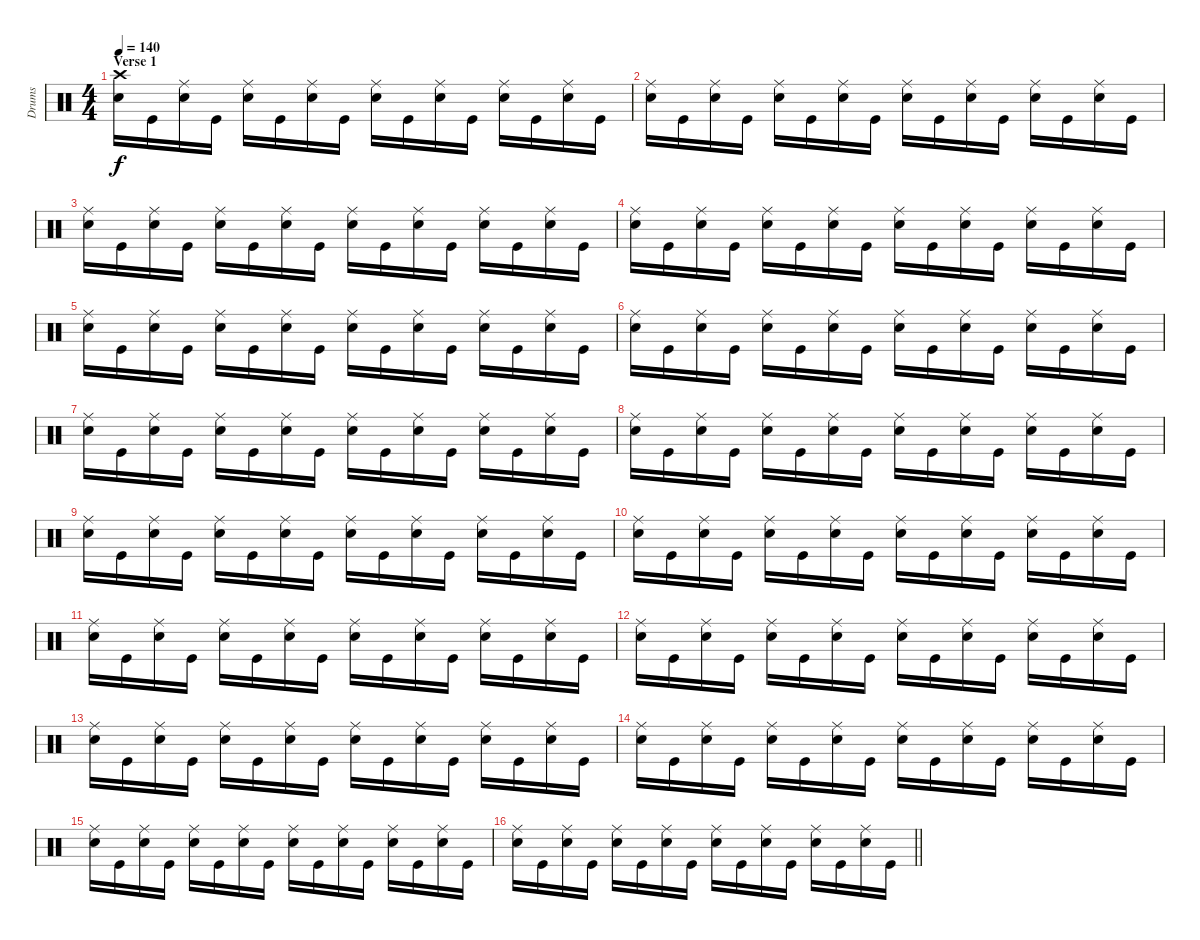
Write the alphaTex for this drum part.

\track ("Drums" "Drums") {instrument percussion}
\staff {score}
\articulation defaults
\ts (4 4)
\section ("" "Verse 1")
\tempo 140
\clef neutral
\ks c
("Crash high (hit)" "Snare (hit) 2").16{dy f} "Kick (hit)".16 ("Ride (middle)" "Snare (hit) 2").16 "Kick (hit)".16 ("Ride (middle)" "Snare (hit) 2").16 "Kick (hit)".16 ("Ride (middle)" "Snare (hit) 2").16 "Kick (hit)".16 ("Ride (middle)" "Snare (hit) 2").16 "Kick (hit)".16 ("Ride (middle)" "Snare (hit) 2").16 "Kick (hit)".16 ("Ride (middle)" "Snare (hit) 2").16 "Kick (hit)".16 ("Ride (middle)" "Snare (hit) 2").16 "Kick (hit)".16 |
("Ride (middle)" "Snare (hit) 2").16 "Kick (hit)".16 ("Ride (middle)" "Snare (hit) 2").16 "Kick (hit)".16 ("Ride (middle)" "Snare (hit) 2").16 "Kick (hit)".16 ("Ride (middle)" "Snare (hit) 2").16 "Kick (hit)".16 ("Ride (middle)" "Snare (hit) 2").16 "Kick (hit)".16 ("Ride (middle)" "Snare (hit) 2").16 "Kick (hit)".16 ("Ride (middle)" "Snare (hit) 2").16 "Kick (hit)".16 ("Ride (middle)" "Snare (hit) 2").16 "Kick (hit)".16 |
("Ride (middle)" "Snare (hit) 2").16 "Kick (hit)".16 ("Ride (middle)" "Snare (hit) 2").16 "Kick (hit)".16 ("Ride (middle)" "Snare (hit) 2").16 "Kick (hit)".16 ("Ride (middle)" "Snare (hit) 2").16 "Kick (hit)".16 ("Ride (middle)" "Snare (hit) 2").16 "Kick (hit)".16 ("Ride (middle)" "Snare (hit) 2").16 "Kick (hit)".16 ("Ride (middle)" "Snare (hit) 2").16 "Kick (hit)".16 ("Ride (middle)" "Snare (hit) 2").16 "Kick (hit)".16 |
("Ride (middle)" "Snare (hit) 2").16 "Kick (hit)".16 ("Ride (middle)" "Snare (hit) 2").16 "Kick (hit)".16 ("Ride (middle)" "Snare (hit) 2").16 "Kick (hit)".16 ("Ride (middle)" "Snare (hit) 2").16 "Kick (hit)".16 ("Ride (middle)" "Snare (hit) 2").16 "Kick (hit)".16 ("Ride (middle)" "Snare (hit) 2").16 "Kick (hit)".16 ("Ride (middle)" "Snare (hit) 2").16 "Kick (hit)".16 ("Ride (middle)" "Snare (hit) 2").16 "Kick (hit)".16 |
("Ride (middle)" "Snare (hit) 2").16 "Kick (hit)".16 ("Ride (middle)" "Snare (hit) 2").16 "Kick (hit)".16 ("Ride (middle)" "Snare (hit) 2").16 "Kick (hit)".16 ("Ride (middle)" "Snare (hit) 2").16 "Kick (hit)".16 ("Ride (middle)" "Snare (hit) 2").16 "Kick (hit)".16 ("Ride (middle)" "Snare (hit) 2").16 "Kick (hit)".16 ("Ride (middle)" "Snare (hit) 2").16 "Kick (hit)".16 ("Ride (middle)" "Snare (hit) 2").16 "Kick (hit)".16 |
("Ride (middle)" "Snare (hit) 2").16 "Kick (hit)".16 ("Ride (middle)" "Snare (hit) 2").16 "Kick (hit)".16 ("Ride (middle)" "Snare (hit) 2").16 "Kick (hit)".16 ("Ride (middle)" "Snare (hit) 2").16 "Kick (hit)".16 ("Ride (middle)" "Snare (hit) 2").16 "Kick (hit)".16 ("Ride (middle)" "Snare (hit) 2").16 "Kick (hit)".16 ("Ride (middle)" "Snare (hit) 2").16 "Kick (hit)".16 ("Ride (middle)" "Snare (hit) 2").16 "Kick (hit)".16 |
("Ride (middle)" "Snare (hit) 2").16 "Kick (hit)".16 ("Ride (middle)" "Snare (hit) 2").16 "Kick (hit)".16 ("Ride (middle)" "Snare (hit) 2").16 "Kick (hit)".16 ("Ride (middle)" "Snare (hit) 2").16 "Kick (hit)".16 ("Ride (middle)" "Snare (hit) 2").16 "Kick (hit)".16 ("Ride (middle)" "Snare (hit) 2").16 "Kick (hit)".16 ("Ride (middle)" "Snare (hit) 2").16 "Kick (hit)".16 ("Ride (middle)" "Snare (hit) 2").16 "Kick (hit)".16 |
("Ride (middle)" "Snare (hit) 2").16 "Kick (hit)".16 ("Ride (middle)" "Snare (hit) 2").16 "Kick (hit)".16 ("Ride (middle)" "Snare (hit) 2").16 "Kick (hit)".16 ("Ride (middle)" "Snare (hit) 2").16 "Kick (hit)".16 ("Ride (middle)" "Snare (hit) 2").16 "Kick (hit)".16 ("Ride (middle)" "Snare (hit) 2").16 "Kick (hit)".16 ("Ride (middle)" "Snare (hit) 2").16 "Kick (hit)".16 ("Ride (middle)" "Snare (hit) 2").16 "Kick (hit)".16 |
("Ride (middle)" "Snare (hit) 2").16 "Kick (hit)".16 ("Ride (middle)" "Snare (hit) 2").16 "Kick (hit)".16 ("Ride (middle)" "Snare (hit) 2").16 "Kick (hit)".16 ("Ride (middle)" "Snare (hit) 2").16 "Kick (hit)".16 ("Ride (middle)" "Snare (hit) 2").16 "Kick (hit)".16 ("Ride (middle)" "Snare (hit) 2").16 "Kick (hit)".16 ("Ride (middle)" "Snare (hit) 2").16 "Kick (hit)".16 ("Ride (middle)" "Snare (hit) 2").16 "Kick (hit)".16 |
("Ride (middle)" "Snare (hit) 2").16 "Kick (hit)".16 ("Ride (middle)" "Snare (hit) 2").16 "Kick (hit)".16 ("Ride (middle)" "Snare (hit) 2").16 "Kick (hit)".16 ("Ride (middle)" "Snare (hit) 2").16 "Kick (hit)".16 ("Ride (middle)" "Snare (hit) 2").16 "Kick (hit)".16 ("Ride (middle)" "Snare (hit) 2").16 "Kick (hit)".16 ("Ride (middle)" "Snare (hit) 2").16 "Kick (hit)".16 ("Ride (middle)" "Snare (hit) 2").16 "Kick (hit)".16 |
("Ride (middle)" "Snare (hit) 2").16 "Kick (hit)".16 ("Ride (middle)" "Snare (hit) 2").16 "Kick (hit)".16 ("Ride (middle)" "Snare (hit) 2").16 "Kick (hit)".16 ("Ride (middle)" "Snare (hit) 2").16 "Kick (hit)".16 ("Ride (middle)" "Snare (hit) 2").16 "Kick (hit)".16 ("Ride (middle)" "Snare (hit) 2").16 "Kick (hit)".16 ("Ride (middle)" "Snare (hit) 2").16 "Kick (hit)".16 ("Ride (middle)" "Snare (hit) 2").16 "Kick (hit)".16 |
("Ride (middle)" "Snare (hit) 2").16 "Kick (hit)".16 ("Ride (middle)" "Snare (hit) 2").16 "Kick (hit)".16 ("Ride (middle)" "Snare (hit) 2").16 "Kick (hit)".16 ("Ride (middle)" "Snare (hit) 2").16 "Kick (hit)".16 ("Ride (middle)" "Snare (hit) 2").16 "Kick (hit)".16 ("Ride (middle)" "Snare (hit) 2").16 "Kick (hit)".16 ("Ride (middle)" "Snare (hit) 2").16 "Kick (hit)".16 ("Ride (middle)" "Snare (hit) 2").16 "Kick (hit)".16 |
("Ride (middle)" "Snare (hit) 2").16 "Kick (hit)".16 ("Ride (middle)" "Snare (hit) 2").16 "Kick (hit)".16 ("Ride (middle)" "Snare (hit) 2").16 "Kick (hit)".16 ("Ride (middle)" "Snare (hit) 2").16 "Kick (hit)".16 ("Ride (middle)" "Snare (hit) 2").16 "Kick (hit)".16 ("Ride (middle)" "Snare (hit) 2").16 "Kick (hit)".16 ("Ride (middle)" "Snare (hit) 2").16 "Kick (hit)".16 ("Ride (middle)" "Snare (hit) 2").16 "Kick (hit)".16 |
("Ride (middle)" "Snare (hit) 2").16 "Kick (hit)".16 ("Ride (middle)" "Snare (hit) 2").16 "Kick (hit)".16 ("Ride (middle)" "Snare (hit) 2").16 "Kick (hit)".16 ("Ride (middle)" "Snare (hit) 2").16 "Kick (hit)".16 ("Ride (middle)" "Snare (hit) 2").16 "Kick (hit)".16 ("Ride (middle)" "Snare (hit) 2").16 "Kick (hit)".16 ("Ride (middle)" "Snare (hit) 2").16 "Kick (hit)".16 ("Ride (middle)" "Snare (hit) 2").16 "Kick (hit)".16 |
("Ride (middle)" "Snare (hit) 2").16 "Kick (hit)".16 ("Ride (middle)" "Snare (hit) 2").16 "Kick (hit)".16 ("Ride (middle)" "Snare (hit) 2").16 "Kick (hit)".16 ("Ride (middle)" "Snare (hit) 2").16 "Kick (hit)".16 ("Ride (middle)" "Snare (hit) 2").16 "Kick (hit)".16 ("Ride (middle)" "Snare (hit) 2").16 "Kick (hit)".16 ("Ride (middle)" "Snare (hit) 2").16 "Kick (hit)".16 ("Ride (middle)" "Snare (hit) 2").16 "Kick (hit)".16 |
\barLineRight lightlight
("Ride (middle)" "Snare (hit) 2").16 "Kick (hit)".16 ("Ride (middle)" "Snare (hit) 2").16 "Kick (hit)".16 ("Ride (middle)" "Snare (hit) 2").16 "Kick (hit)".16 ("Ride (middle)" "Snare (hit) 2").16 "Kick (hit)".16 ("Ride (middle)" "Snare (hit) 2").16 "Kick (hit)".16 ("Ride (middle)" "Snare (hit) 2").16 "Kick (hit)".16 ("Ride (middle)" "Snare (hit) 2").16 "Kick (hit)".16 ("Ride (middle)" "Snare (hit) 2").16 "Kick (hit)".16
